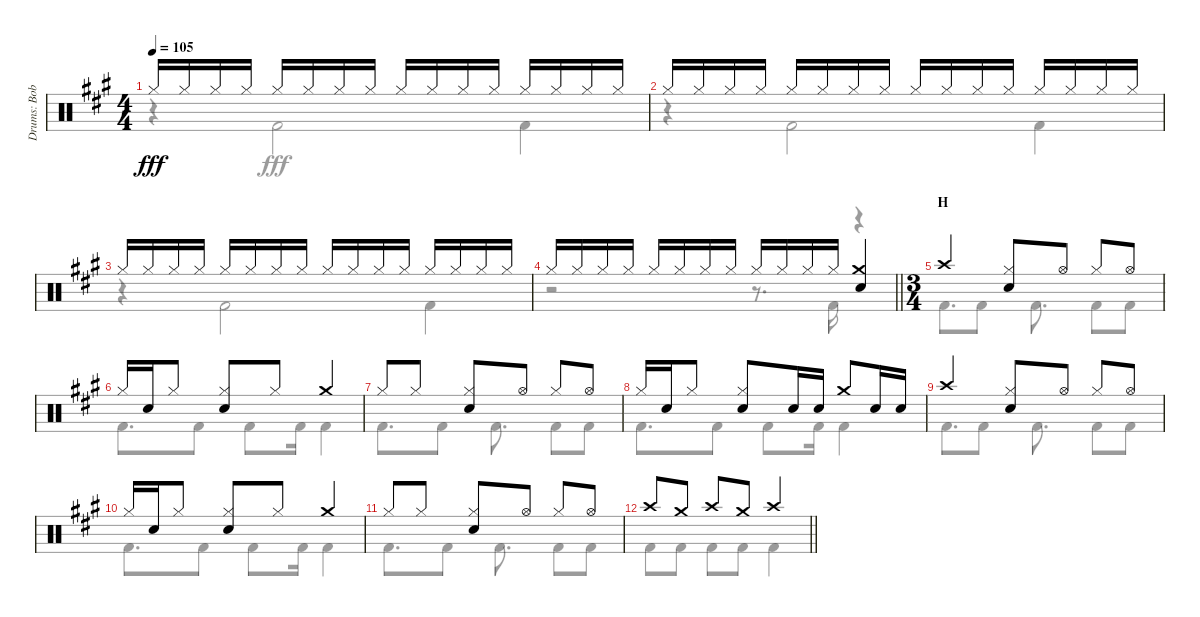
\track ("Drums: Bobby" "Drums: Bob") {instrument percussion}
\staff {score}
\articulation defaults
\voice
\ts (4 4)
\tempo 105
\clef neutral
\ks a "Hi-Hat (closed)".16{dy fff} "Hi-Hat (closed)".16 "Hi-Hat (closed)".16 "Hi-Hat (closed)".16 "Hi-Hat (closed)".16 "Hi-Hat (closed)".16 "Hi-Hat (closed)".16 "Hi-Hat (closed)".16 "Hi-Hat (closed)".16 "Hi-Hat (closed)".16 "Hi-Hat (closed)".16 "Hi-Hat (closed)".16 "Hi-Hat (closed)".16 "Hi-Hat (closed)".16 "Hi-Hat (closed)".16 "Hi-Hat (closed)".16
|
"Hi-Hat (closed)".16 "Hi-Hat (closed)".16 "Hi-Hat (closed)".16 "Hi-Hat (closed)".16 "Hi-Hat (closed)".16 "Hi-Hat (closed)".16 "Hi-Hat (closed)".16 "Hi-Hat (closed)".16 "Hi-Hat (closed)".16 "Hi-Hat (closed)".16 "Hi-Hat (closed)".16 "Hi-Hat (closed)".16 "Hi-Hat (closed)".16 "Hi-Hat (closed)".16 "Hi-Hat (closed)".16 "Hi-Hat (closed)".16 |
"Hi-Hat (closed)".16 "Hi-Hat (closed)".16 "Hi-Hat (closed)".16 "Hi-Hat (closed)".16 "Hi-Hat (closed)".16 "Hi-Hat (closed)".16 "Hi-Hat (closed)".16 "Hi-Hat (closed)".16 "Hi-Hat (closed)".16 "Hi-Hat (closed)".16 "Hi-Hat (closed)".16 "Hi-Hat (closed)".16 "Hi-Hat (closed)".16 "Hi-Hat (closed)".16 "Hi-Hat (closed)".16 "Hi-Hat (closed)".16 |
\barLineRight lightlight "Hi-Hat (closed)".16 "Hi-Hat (closed)".16 "Hi-Hat (closed)".16 "Hi-Hat (closed)".16 "Hi-Hat (closed)".16 "Hi-Hat (closed)".16 "Hi-Hat (closed)".16 "Hi-Hat (closed)".16 "Hi-Hat (closed)".16 "Hi-Hat (closed)".16 "Hi-Hat (closed)".16 "Hi-Hat (closed)".16
("Crash medium (hit)" "Snare (hit) 2").4 |
\ts (3 4)
\section ("" "H")
"Crash high (hit)".4 ("Hi-Hat (closed)" "Snare (hit) 2").8 "Hi-Hat (open)".8 "Hi-Hat (closed)".8 "Hi-Hat (open)".8 |
"Hi-Hat (closed)".16 "Snare (hit) 2".16 "Hi-Hat (closed)".8 ("Hi-Hat (closed)" "Snare (hit) 2").8 "Hi-Hat (closed)".8 "Crash medium (hit)".4 |
"Hi-Hat (closed)".8 "Hi-Hat (closed)".8 ("Hi-Hat (closed)" "Snare (hit) 2").8 "Hi-Hat (open)".8 "Hi-Hat (closed)".8 "Hi-Hat (open)".8 |
"Hi-Hat (closed)".16 "Snare (hit) 2".16 "Hi-Hat (closed)".8 ("Hi-Hat (closed)" "Snare (hit) 2").8 "Snare (hit) 2".16 "Snare (hit) 2".16 "Crash medium (hit)".8 "Snare (hit) 2".16 "Snare (hit) 2".16 |
"Crash high (hit)".4 ("Hi-Hat (closed)" "Snare (hit) 2").8 "Hi-Hat (open)".8 "Hi-Hat (closed)".8 "Hi-Hat (open)".8 |
"Hi-Hat (closed)".16 "Snare (hit) 2".16 "Hi-Hat (closed)".8 ("Hi-Hat (closed)" "Snare (hit) 2").8 "Hi-Hat (closed)".8 "Crash medium (hit)".4 |
"Hi-Hat (closed)".8 "Hi-Hat (closed)".8 ("Hi-Hat (closed)" "Snare (hit) 2").8 "Hi-Hat (open)".8 "Hi-Hat (closed)".8 "Hi-Hat (open)".8 |
\barLineRight lightlight "Crash high (hit)".8 "Crash medium (hit)".8 "Crash high (hit)".8 "Crash medium (hit)".8 "Crash high (hit)".4
\voice
\clef neutral
\ottava regular
\simile none
\ks a
r.4{dy fff} "Kick (hit) 2".2 "Kick (hit) 2".4 |
r.4 "Kick (hit) 2".2 "Kick (hit) 2".4 |
r.4 "Kick (hit) 2".2 "Kick (hit) 2".4 |
\barLineRight lightlight
r.2 r.8{d} "Kick (hit) 2".16 r.4 |
"Kick (hit) 2".8{d} "Kick (hit) 2".8 "Kick (hit) 2".8{d} "Kick (hit) 2".8 "Kick (hit) 2".8 |
"Kick (hit) 2".8{d} "Kick (hit) 2".8 "Kick (hit) 2".8 "Kick (hit) 2".16 "Kick (hit) 2".4 |
"Kick (hit) 2".8{d} "Kick (hit) 2".8 "Kick (hit) 2".8{d} "Kick (hit) 2".8 "Kick (hit) 2".8 |
"Kick (hit) 2".8{d} "Kick (hit) 2".8 "Kick (hit) 2".8 "Kick (hit) 2".16 "Kick (hit) 2".4 |
"Kick (hit) 2".8{d} "Kick (hit) 2".8 "Kick (hit) 2".8{d} "Kick (hit) 2".8 "Kick (hit) 2".8 |
"Kick (hit) 2".8{d} "Kick (hit) 2".8 "Kick (hit) 2".8 "Kick (hit) 2".16 "Kick (hit) 2".4 |
"Kick (hit) 2".8{d} "Kick (hit) 2".8 "Kick (hit) 2".8{d} "Kick (hit) 2".8 "Kick (hit) 2".8 |
\barLineRight lightlight "Kick (hit) 2".8 "Kick (hit) 2".8 "Kick (hit) 2".8 "Kick (hit) 2".8 "Kick (hit) 2".4
